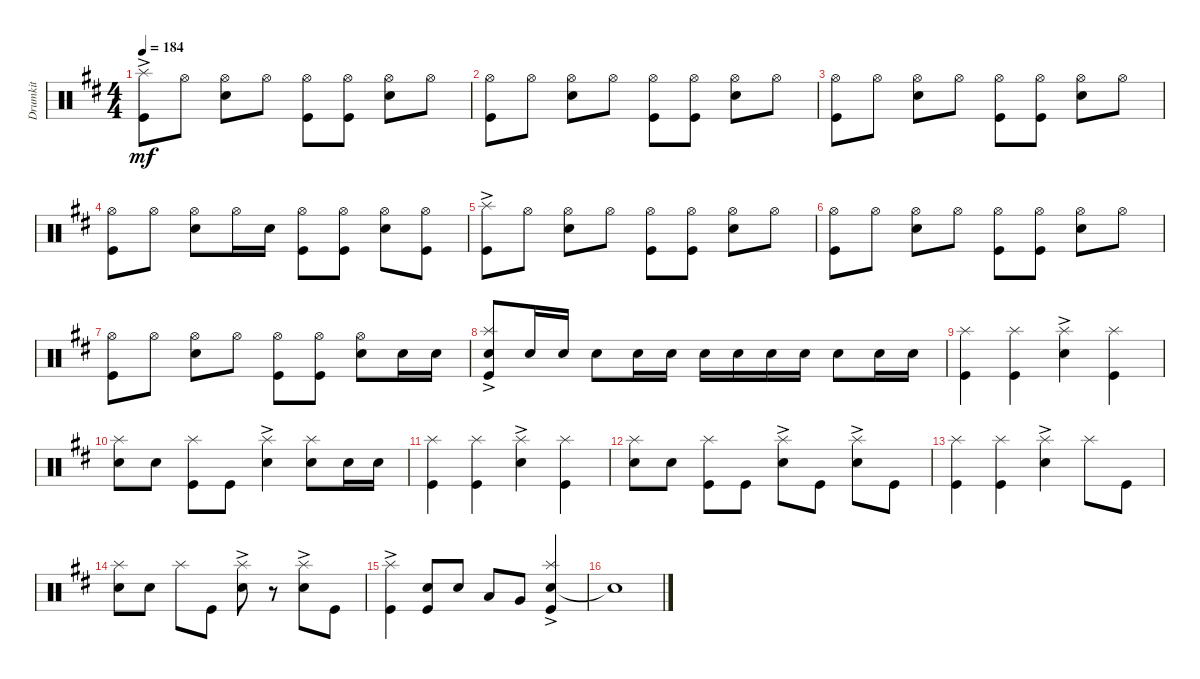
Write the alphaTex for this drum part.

\track ("Drumkit" "Drumkit") {instrument percussion}
\staff {score}
\articulation defaults
\ts (4 4)
\tempo 184
\clef neutral
\ks d
("Kick (hit)" "Splash (hit)"{ac}).8{dy mf} "Hi-Hat (open)".8 ("Hi-Hat (open)" "Snare (hit) 2").8 "Hi-Hat (open)".8 ("Hi-Hat (open)" "Kick (hit)").8 ("Hi-Hat (open)" "Kick (hit)").8 ("Hi-Hat (open)" "Snare (hit) 2").8 "Hi-Hat (open)".8 |
("Kick (hit)" "Hi-Hat (open)").8 "Hi-Hat (open)".8 ("Hi-Hat (open)" "Snare (hit) 2").8 "Hi-Hat (open)".8 ("Hi-Hat (open)" "Kick (hit)").8 ("Hi-Hat (open)" "Kick (hit)").8 ("Hi-Hat (open)" "Snare (hit) 2").8 "Hi-Hat (open)".8 |
("Kick (hit)" "Hi-Hat (open)").8 "Hi-Hat (open)".8 ("Hi-Hat (open)" "Snare (hit) 2").8 "Hi-Hat (open)".8 ("Hi-Hat (open)" "Kick (hit)").8 ("Hi-Hat (open)" "Kick (hit)").8 ("Hi-Hat (open)" "Snare (hit) 2").8 "Hi-Hat (open)".8 |
("Kick (hit)" "Hi-Hat (open)").8 "Hi-Hat (open)".8 ("Hi-Hat (open)" "Snare (hit) 2").8 "Hi-Hat (open)".16 "Snare (hit) 2".16 ("Hi-Hat (open)" "Kick (hit)").8 ("Hi-Hat (open)" "Kick (hit)").8 ("Hi-Hat (open)" "Snare (hit) 2").8 ("Hi-Hat (open)" "Kick (hit)").8 |
("Kick (hit)" "Splash (hit)"{ac}).8 "Hi-Hat (open)".8 ("Hi-Hat (open)" "Snare (hit) 2").8 "Hi-Hat (open)".8 ("Hi-Hat (open)" "Kick (hit)").8 ("Hi-Hat (open)" "Kick (hit)").8 ("Hi-Hat (open)" "Snare (hit) 2").8 "Hi-Hat (open)".8 |
("Kick (hit)" "Hi-Hat (open)").8 "Hi-Hat (open)".8 ("Hi-Hat (open)" "Snare (hit) 2").8 "Hi-Hat (open)".8 ("Hi-Hat (open)" "Kick (hit)").8 ("Hi-Hat (open)" "Kick (hit)").8 ("Hi-Hat (open)" "Snare (hit) 2").8 "Hi-Hat (open)".8 |
("Kick (hit)" "Hi-Hat (open)").8 "Hi-Hat (open)".8 ("Hi-Hat (open)" "Snare (hit) 2").8 "Hi-Hat (open)".8 ("Hi-Hat (open)" "Kick (hit)").8 ("Hi-Hat (open)" "Kick (hit)").8 ("Hi-Hat (open)" "Snare (hit) 2").8 "Snare (hit) 2".16 "Snare (hit) 2".16 |
("Kick (hit)" "Snare (hit) 2" "Splash (hit)"{ac}).8 "Snare (hit) 2".16 "Snare (hit) 2".16 "Snare (hit) 2".8 "Snare (hit) 2".16 "Snare (hit) 2".16 "Snare (hit) 2".16 "Snare (hit) 2".16 "Snare (hit) 2".16 "Snare (hit) 2".16 "Snare (hit) 2".8 "Snare (hit) 2".16 "Snare (hit) 2".16 |
("Kick (hit)" "Splash (hit)").4 ("Kick (hit)" "Splash (hit)").4 ("Snare (hit) 2" "Splash (hit)"{ac}).4 ("Splash (hit)" "Kick (hit)").4 |
("Splash (hit)" "Snare (hit) 2").8 "Snare (hit) 2".8 ("Splash (hit)" "Kick (hit)").8 "Kick (hit)".8 ("Splash (hit)"{ac} "Snare (hit) 2").4 ("Snare (hit) 2" "Splash (hit)").8 "Snare (hit) 2".16 "Snare (hit) 2".16 |
("Kick (hit)" "Splash (hit)").4 ("Kick (hit)" "Splash (hit)").4 ("Snare (hit) 2" "Splash (hit)"{ac}).4 ("Splash (hit)" "Kick (hit)").4 |
("Splash (hit)" "Snare (hit) 2").8 "Snare (hit) 2".8 ("Splash (hit)" "Kick (hit)").8 "Kick (hit)".8 ("Splash (hit)"{ac} "Snare (hit) 2").8 "Kick (hit)".8 ("Snare (hit) 2" "Splash (hit)"{ac}).8 "Kick (hit)".8 |
("Kick (hit)" "Splash (hit)").4 ("Kick (hit)" "Splash (hit)").4 ("Snare (hit) 2" "Splash (hit)"{ac}).4 "Splash (hit)".8 "Kick (hit)".8 |
("Snare (hit) 2" "Splash (hit)").8 "Snare (hit) 2".8 "Splash (hit)".8 "Kick (hit)".8 ("Snare (hit) 2" "Splash (hit)"{ac}).8 r.8 ("Snare (hit) 2" "Splash (hit)"{ac}).8 "Kick (hit)".8 |
("Kick (hit)" "Splash (hit)"{ac}).4 ("Kick (hit)" "Snare (hit) 2").8 "Snare (hit) 2".8 "Low Tom (hit)".8 "Very Low Tom (hit)".8 ("Snare (hit) 2" "Splash (hit)"{ac} "Kick (hit)").4 |
"Snare (hit) 2"{t}.1
